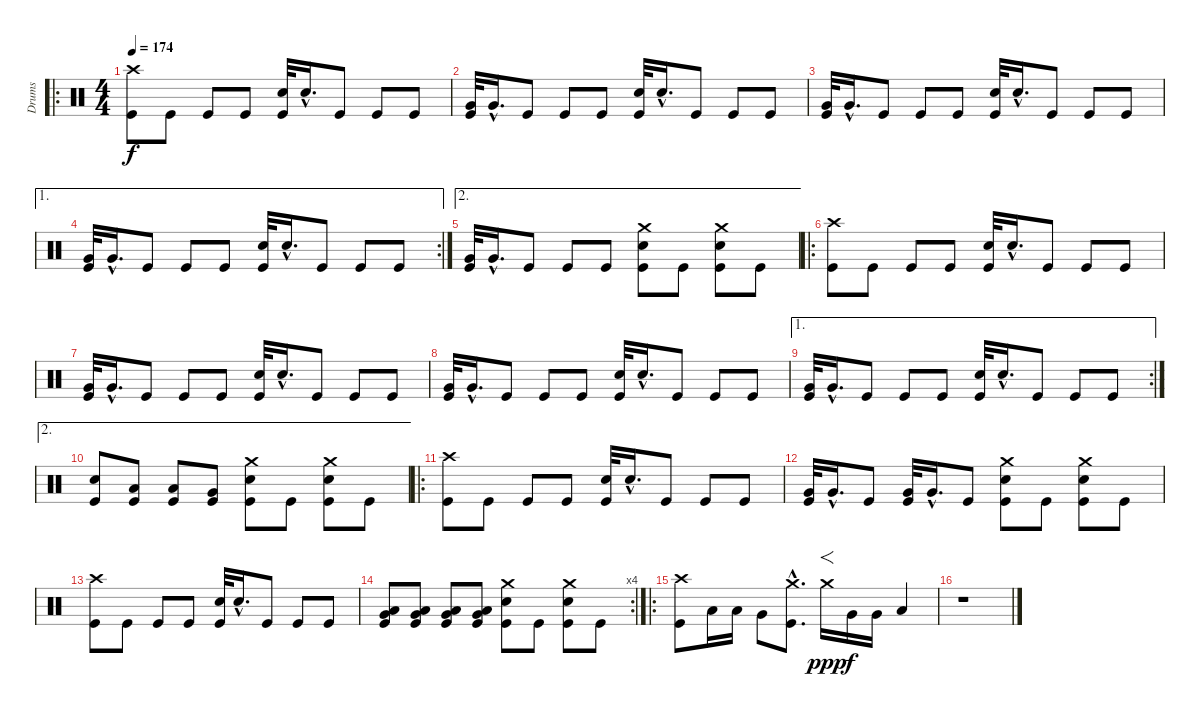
\track ("Drums" "Drums") {instrument percussion}
\staff {score}
\articulation defaults
\ro
\ts (4 4)
\tempo 174
\tempo 164
\tempo 174
\clef neutral
\ks c
("Crash high (hit)" "Kick (hit)").8{dy f} "Kick (hit)".8 "Kick (hit)".8 "Kick (hit)".8 ("Electric Snare (hit)" "Kick (hit)").32 "Electric Snare (hit)"{hac}.16{d} "Kick (hit)".8 "Kick (hit)".8 "Kick (hit)".8 |
("Very Low Tom (hit)" "Kick (hit)").32 "Very Low Tom (hit)"{hac}.16{d} "Kick (hit)".8 "Kick (hit)".8 "Kick (hit)".8 ("Electric Snare (hit)" "Kick (hit)").32 "Electric Snare (hit)"{hac}.16{d} "Kick (hit)".8 "Kick (hit)".8 "Kick (hit)".8 |
("Very Low Tom (hit)" "Kick (hit)").32 "Very Low Tom (hit)"{hac}.16{d} "Kick (hit)".8 "Kick (hit)".8 "Kick (hit)".8 ("Electric Snare (hit)" "Kick (hit)").32 "Electric Snare (hit)"{hac}.16{d} "Kick (hit)".8 "Kick (hit)".8 "Kick (hit)".8 |
\ae 1
\rc 2
("Very Low Tom (hit)" "Kick (hit)").32 "Very Low Tom (hit)"{hac}.16{d} "Kick (hit)".8 "Kick (hit)".8 "Kick (hit)".8 ("Electric Snare (hit)" "Kick (hit)").32 "Electric Snare (hit)"{hac}.16{d} "Kick (hit)".8 "Kick (hit)".8 "Kick (hit)".8 |
\ae 2
("Very Low Tom (hit)" "Kick (hit)").32 "Very Low Tom (hit)"{hac}.16{d} "Kick (hit)".8 "Kick (hit)".8 "Kick (hit)".8 ("Crash medium (hit)" "Electric Snare (hit)" "Kick (hit)").8 "Kick (hit)".8 ("Crash medium (hit)" "Electric Snare (hit)" "Kick (hit)").8 "Kick (hit)".8 |
\ro
("Crash high (hit)" "Kick (hit)").8 "Kick (hit)".8 "Kick (hit)".8 "Kick (hit)".8 ("Electric Snare (hit)" "Kick (hit)").32 "Electric Snare (hit)"{hac}.16{d} "Kick (hit)".8 "Kick (hit)".8 "Kick (hit)".8 |
("Very Low Tom (hit)" "Kick (hit)").32 "Very Low Tom (hit)"{hac}.16{d} "Kick (hit)".8 "Kick (hit)".8 "Kick (hit)".8 ("Electric Snare (hit)" "Kick (hit)").32 "Electric Snare (hit)"{hac}.16{d} "Kick (hit)".8 "Kick (hit)".8 "Kick (hit)".8 |
("Very Low Tom (hit)" "Kick (hit)").32 "Very Low Tom (hit)"{hac}.16{d} "Kick (hit)".8 "Kick (hit)".8 "Kick (hit)".8 ("Electric Snare (hit)" "Kick (hit)").32 "Electric Snare (hit)"{hac}.16{d} "Kick (hit)".8 "Kick (hit)".8 "Kick (hit)".8 |
\ae 1
\rc 2
("Very Low Tom (hit)" "Kick (hit)").32 "Very Low Tom (hit)"{hac}.16{d} "Kick (hit)".8 "Kick (hit)".8 "Kick (hit)".8 ("Electric Snare (hit)" "Kick (hit)").32 "Electric Snare (hit)"{hac}.16{d} "Kick (hit)".8 "Kick (hit)".8 "Kick (hit)".8 |
\ae 2
("Electric Snare (hit)" "Kick (hit)").8 ("Low Tom (hit)" "Kick (hit)").8 ("Low Tom (hit)" "Kick (hit)").8 ("Very Low Tom (hit)" "Kick (hit)").8 ("Crash medium (hit)" "Electric Snare (hit)" "Kick (hit)").8 "Kick (hit)".8 ("Crash medium (hit)" "Electric Snare (hit)" "Kick (hit)").8 "Kick (hit)".8 |
\ro
("Crash high (hit)" "Kick (hit)").8 "Kick (hit)".8 "Kick (hit)".8 "Kick (hit)".8 ("Electric Snare (hit)" "Kick (hit)").32 "Electric Snare (hit)"{hac}.16{d} "Kick (hit)".8 "Kick (hit)".8 "Kick (hit)".8 |
("Very Low Tom (hit)" "Kick (hit)").32 "Very Low Tom (hit)"{hac}.16{d} "Kick (hit)".8 ("Very Low Tom (hit)" "Kick (hit)").32 "Very Low Tom (hit)"{hac}.16{d} "Kick (hit)".8 ("Crash medium (hit)" "Electric Snare (hit)" "Kick (hit)").8 "Kick (hit)".8 ("Crash medium (hit)" "Electric Snare (hit)" "Kick (hit)").8 "Kick (hit)".8 |
("Crash high (hit)" "Kick (hit)").8 "Kick (hit)".8 "Kick (hit)".8 "Kick (hit)".8 ("Electric Snare (hit)" "Kick (hit)").32 "Electric Snare (hit)"{hac}.16{d} "Kick (hit)".8 "Kick (hit)".8 "Kick (hit)".8 |
\rc 4
("Low Floor Tom (hit)" "Very Low Tom (hit)" "Kick (hit)").8 ("Low Floor Tom (hit)" "Very Low Tom (hit)" "Kick (hit)").8 ("Low Floor Tom (hit)" "Very Low Tom (hit)" "Kick (hit)").8 ("Low Floor Tom (hit)" "Very Low Tom (hit)" "Kick (hit)").8 ("Crash medium (hit)" "Electric Snare (hit)" "Kick (hit)").8 "Kick (hit)".8 ("Crash medium (hit)" "Electric Snare (hit)" "Kick (hit)").8 "Kick (hit)".8 |
\ro
("Crash high (hit)" "Kick (hit)").8 "Low Tom (hit)".16 "Low Tom (hit)".16 "Very Low Tom (hit)".8 ("Crash medium (hit)"{hac} "Kick (hit)"{hac}).8{d} "Crash medium (hit)".16{f dy ppp} "Very Low Tom (hit)".16{dy f} "Very Low Tom (hit)".16 "Low Floor Tom (hit)".4 |
r.1
